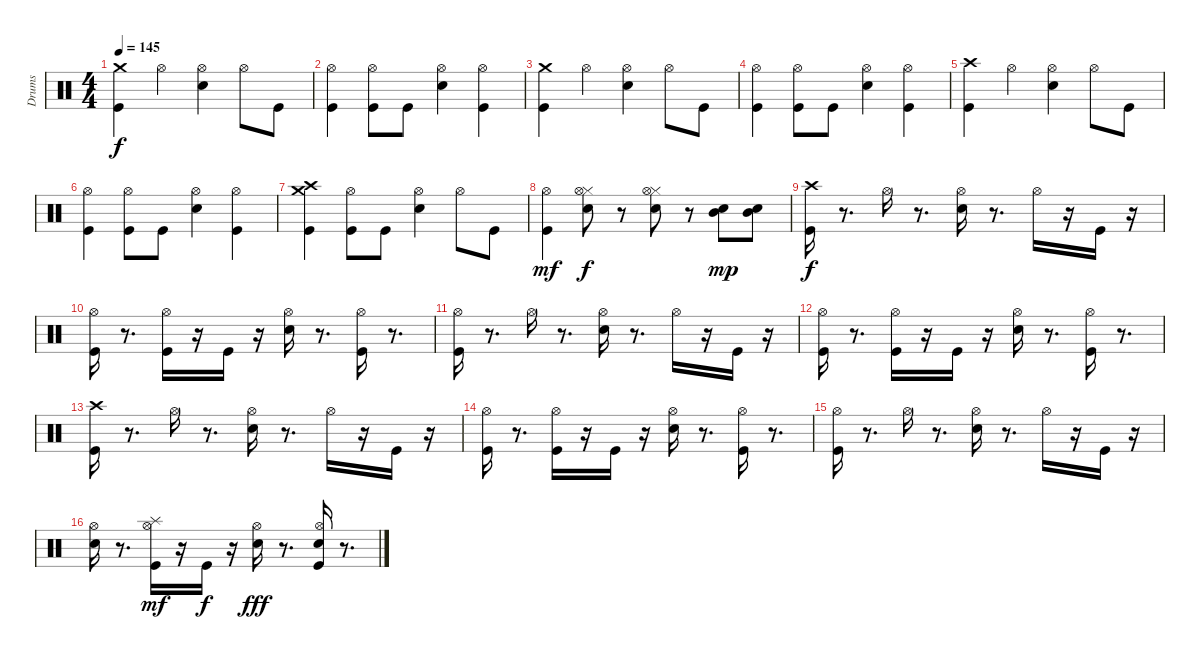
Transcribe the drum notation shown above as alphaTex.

\track ("Drums" "Drums") {instrument percussion}
\staff {score}
\articulation defaults
\ts (4 4)
\tempo 145
\clef neutral
\ks c
("Kick (hit)" "Crash medium (hit)").4{dy f} "Hi-Hat (open)".4 ("Hi-Hat (open)" "Electric Snare (hit)").4 "Hi-Hat (open)".8 "Kick (hit)".8 |
("Kick (hit)" "Hi-Hat (open)").4 ("Kick (hit)" "Hi-Hat (open)").8 "Kick (hit)".8 ("Hi-Hat (open)" "Electric Snare (hit)").4 ("Kick (hit)" "Hi-Hat (open)").4 |
("Kick (hit)" "Crash medium (hit)").4 "Hi-Hat (open)".4 ("Hi-Hat (open)" "Electric Snare (hit)").4 "Hi-Hat (open)".8 "Kick (hit)".8 |
("Kick (hit)" "Hi-Hat (open)").4 ("Kick (hit)" "Hi-Hat (open)").8 "Kick (hit)".8 ("Hi-Hat (open)" "Electric Snare (hit)").4 ("Kick (hit)" "Hi-Hat (open)").4 |
("Kick (hit)" "Crash high (hit)").4 "Hi-Hat (open)".4 ("Hi-Hat (open)" "Electric Snare (hit)").4 "Hi-Hat (open)".8 "Kick (hit)".8 |
("Kick (hit)" "Hi-Hat (open)").4 ("Kick (hit)" "Hi-Hat (open)").8 "Kick (hit)".8 ("Hi-Hat (open)" "Electric Snare (hit)").4 ("Kick (hit)" "Hi-Hat (open)").4 |
("Kick (hit)" "Crash high (hit)" "Crash medium (hit)").4 ("Kick (hit)" "Hi-Hat (open)").8 "Kick (hit)".8 ("Hi-Hat (open)" "Electric Snare (hit)").4 "Hi-Hat (open)".8 "Kick (hit)".8 |
("Kick (hit)" "Hi-Hat (open)").4{dy mf} ("Hi-Hat (closed)" "Hi-Hat (open)" "Snare (hit) 2").8{dy f} r.8 ("Hi-Hat (closed)" "Hi-Hat (open)" "Snare (hit) 2").8 r.8 ("Mid Tom (hit)" "Snare (hit) 2").8{dy mp} ("Mid Tom (hit)" "Snare (hit) 2").8 |
("Kick (hit)" "Crash high (hit)").16{dy f} r.8{d} "Hi-Hat (open)".16 r.8{d} ("Hi-Hat (open)" "Electric Snare (hit)").16 r.8{d} "Hi-Hat (open)".16 r.16 "Kick (hit)".16 r.16 |
("Kick (hit)" "Hi-Hat (open)").16 r.8{d} ("Kick (hit)" "Hi-Hat (open)").16 r.16 "Kick (hit)".16 r.16 ("Hi-Hat (open)" "Electric Snare (hit)").16 r.8{d} ("Kick (hit)" "Hi-Hat (open)").16 r.8{d} |
("Kick (hit)" "Hi-Hat (open)").16 r.8{d} "Hi-Hat (open)".16 r.8{d} ("Hi-Hat (open)" "Electric Snare (hit)").16 r.8{d} "Hi-Hat (open)".16 r.16 "Kick (hit)".16 r.16 |
("Kick (hit)" "Hi-Hat (open)").16 r.8{d} ("Kick (hit)" "Hi-Hat (open)").16 r.16 "Kick (hit)".16 r.16 ("Hi-Hat (open)" "Electric Snare (hit)").16 r.8{d} ("Kick (hit)" "Hi-Hat (open)").16 r.8{d} |
("Kick (hit)" "Crash high (hit)").16 r.8{d} "Hi-Hat (open)".16 r.8{d} ("Hi-Hat (open)" "Electric Snare (hit)").16 r.8{d} "Hi-Hat (open)".16 r.16 "Kick (hit)".16 r.16 |
("Kick (hit)" "Hi-Hat (open)").16 r.8{d} ("Kick (hit)" "Hi-Hat (open)").16 r.16 "Kick (hit)".16 r.16 ("Electric Snare (hit)" "Hi-Hat (open)").16 r.8{d} ("Kick (hit)" "Hi-Hat (open)").16 r.8{d} |
("Kick (hit)" "Hi-Hat (open)").16 r.8{d} "Hi-Hat (open)".16 r.8{d} ("Electric Snare (hit)" "Hi-Hat (open)").16 r.8{d} "Hi-Hat (open)".16 r.16 "Kick (hit)".16 r.16 |
("Electric Snare (hit)" "Hi-Hat (open)").16 r.8{d} ("Splash (hit)" "Hi-Hat (open)" "Kick (hit)").16{dy mf} r.16 "Kick (hit)".16{dy f} r.16 ("Electric Snare (hit)" "Hi-Hat (open)").16{dy fff} r.8{d} ("Electric Snare (hit)" "Kick (hit)" "Hi-Hat (open)").16 r.8{d}
